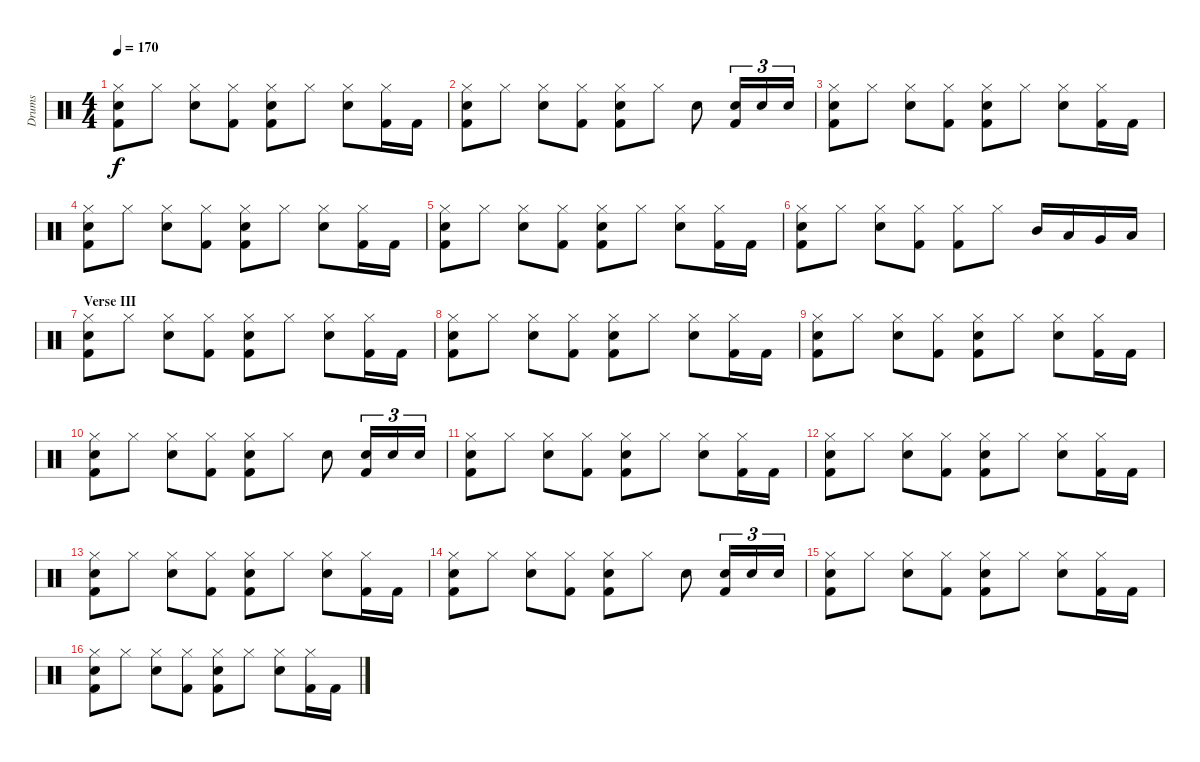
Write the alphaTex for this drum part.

\track ("Drums" "Drums") {instrument percussion}
\staff {score}
\articulation defaults
\ts (4 4)
\tempo 170
\clef neutral
\ks c
("Kick (hit) 2" "Snare (hit) 2" "Hi-Hat (closed)").8{dy f} "Hi-Hat (closed)".8 ("Snare (hit) 2" "Hi-Hat (closed)").8 ("Kick (hit) 2" "Hi-Hat (closed)").8 ("Kick (hit) 2" "Snare (hit) 2" "Hi-Hat (closed)").8 "Hi-Hat (closed)".8 ("Snare (hit) 2" "Hi-Hat (closed)").8 ("Kick (hit) 2" "Hi-Hat (closed)").16 "Kick (hit) 2".16 |
("Kick (hit) 2" "Snare (hit) 2" "Hi-Hat (closed)").8 "Hi-Hat (closed)".8 ("Snare (hit) 2" "Hi-Hat (closed)").8 ("Kick (hit) 2" "Hi-Hat (closed)").8 ("Kick (hit) 2" "Snare (hit) 2" "Hi-Hat (closed)").8 "Hi-Hat (closed)".8 "Snare (hit) 2".8 ("Kick (hit) 2" "Snare (hit) 2").16{tu (3 2)} "Snare (hit) 2".16{tu (3 2)} "Snare (hit) 2".16{tu (3 2)} |
("Kick (hit) 2" "Snare (hit) 2" "Hi-Hat (closed)").8 "Hi-Hat (closed)".8 ("Snare (hit) 2" "Hi-Hat (closed)").8 ("Kick (hit) 2" "Hi-Hat (closed)").8 ("Kick (hit) 2" "Snare (hit) 2" "Hi-Hat (closed)").8 "Hi-Hat (closed)".8 ("Snare (hit) 2" "Hi-Hat (closed)").8 ("Kick (hit) 2" "Hi-Hat (closed)").16 "Kick (hit) 2".16 |
("Kick (hit) 2" "Snare (hit) 2" "Hi-Hat (closed)").8 "Hi-Hat (closed)".8 ("Snare (hit) 2" "Hi-Hat (closed)").8 ("Kick (hit) 2" "Hi-Hat (closed)").8 ("Kick (hit) 2" "Snare (hit) 2" "Hi-Hat (closed)").8 "Hi-Hat (closed)".8 ("Snare (hit) 2" "Hi-Hat (closed)").8 ("Kick (hit) 2" "Hi-Hat (closed)").16 "Kick (hit) 2".16 |
("Kick (hit) 2" "Snare (hit) 2" "Hi-Hat (closed)").8 "Hi-Hat (closed)".8 ("Snare (hit) 2" "Hi-Hat (closed)").8 ("Kick (hit) 2" "Hi-Hat (closed)").8 ("Kick (hit) 2" "Snare (hit) 2" "Hi-Hat (closed)").8 "Hi-Hat (closed)".8 ("Snare (hit) 2" "Hi-Hat (closed)").8 ("Kick (hit) 2" "Hi-Hat (closed)").16 "Kick (hit) 2".16 |
("Kick (hit) 2" "Snare (hit) 2" "Hi-Hat (closed)").8 "Hi-Hat (closed)".8 ("Snare (hit) 2" "Hi-Hat (closed)").8 ("Kick (hit) 2" "Hi-Hat (closed)").8 ("Kick (hit) 2" "Hi-Hat (closed)").8 "Hi-Hat (closed)".8 "Mid Tom (hit)".16 "Low Tom (hit)".16 "Very Low Tom (hit)".16 "Low Floor Tom (hit)".16 |
\section ("" "Verse III")
("Kick (hit) 2" "Snare (hit) 2" "Hi-Hat (closed)").8 "Hi-Hat (closed)".8 ("Snare (hit) 2" "Hi-Hat (closed)").8 ("Kick (hit) 2" "Hi-Hat (closed)").8 ("Kick (hit) 2" "Snare (hit) 2" "Hi-Hat (closed)").8 "Hi-Hat (closed)".8 ("Snare (hit) 2" "Hi-Hat (closed)").8 ("Kick (hit) 2" "Hi-Hat (closed)").16 "Kick (hit) 2".16 |
("Kick (hit) 2" "Snare (hit) 2" "Hi-Hat (closed)").8 "Hi-Hat (closed)".8 ("Snare (hit) 2" "Hi-Hat (closed)").8 ("Kick (hit) 2" "Hi-Hat (closed)").8 ("Kick (hit) 2" "Snare (hit) 2" "Hi-Hat (closed)").8 "Hi-Hat (closed)".8 ("Snare (hit) 2" "Hi-Hat (closed)").8 ("Kick (hit) 2" "Hi-Hat (closed)").16 "Kick (hit) 2".16 |
("Kick (hit) 2" "Snare (hit) 2" "Hi-Hat (closed)").8 "Hi-Hat (closed)".8 ("Snare (hit) 2" "Hi-Hat (closed)").8 ("Kick (hit) 2" "Hi-Hat (closed)").8 ("Kick (hit) 2" "Snare (hit) 2" "Hi-Hat (closed)").8 "Hi-Hat (closed)".8 ("Snare (hit) 2" "Hi-Hat (closed)").8 ("Kick (hit) 2" "Hi-Hat (closed)").16 "Kick (hit) 2".16 |
("Kick (hit) 2" "Snare (hit) 2" "Hi-Hat (closed)").8 "Hi-Hat (closed)".8 ("Snare (hit) 2" "Hi-Hat (closed)").8 ("Kick (hit) 2" "Hi-Hat (closed)").8 ("Kick (hit) 2" "Snare (hit) 2" "Hi-Hat (closed)").8 "Hi-Hat (closed)".8 "Snare (hit) 2".8 ("Kick (hit) 2" "Snare (hit) 2").16{tu (3 2)} "Snare (hit) 2".16{tu (3 2)} "Snare (hit) 2".16{tu (3 2)} |
("Kick (hit) 2" "Snare (hit) 2" "Hi-Hat (closed)").8 "Hi-Hat (closed)".8 ("Snare (hit) 2" "Hi-Hat (closed)").8 ("Kick (hit) 2" "Hi-Hat (closed)").8 ("Kick (hit) 2" "Snare (hit) 2" "Hi-Hat (closed)").8 "Hi-Hat (closed)".8 ("Snare (hit) 2" "Hi-Hat (closed)").8 ("Kick (hit) 2" "Hi-Hat (closed)").16 "Kick (hit) 2".16 |
("Kick (hit) 2" "Snare (hit) 2" "Hi-Hat (closed)").8 "Hi-Hat (closed)".8 ("Snare (hit) 2" "Hi-Hat (closed)").8 ("Kick (hit) 2" "Hi-Hat (closed)").8 ("Kick (hit) 2" "Snare (hit) 2" "Hi-Hat (closed)").8 "Hi-Hat (closed)".8 ("Snare (hit) 2" "Hi-Hat (closed)").8 ("Kick (hit) 2" "Hi-Hat (closed)").16 "Kick (hit) 2".16 |
("Kick (hit) 2" "Snare (hit) 2" "Hi-Hat (closed)").8 "Hi-Hat (closed)".8 ("Snare (hit) 2" "Hi-Hat (closed)").8 ("Kick (hit) 2" "Hi-Hat (closed)").8 ("Kick (hit) 2" "Snare (hit) 2" "Hi-Hat (closed)").8 "Hi-Hat (closed)".8 ("Snare (hit) 2" "Hi-Hat (closed)").8 ("Kick (hit) 2" "Hi-Hat (closed)").16 "Kick (hit) 2".16 |
("Kick (hit) 2" "Snare (hit) 2" "Hi-Hat (closed)").8 "Hi-Hat (closed)".8 ("Snare (hit) 2" "Hi-Hat (closed)").8 ("Kick (hit) 2" "Hi-Hat (closed)").8 ("Kick (hit) 2" "Snare (hit) 2" "Hi-Hat (closed)").8 "Hi-Hat (closed)".8 "Snare (hit) 2".8 ("Kick (hit) 2" "Snare (hit) 2").16{tu (3 2)} "Snare (hit) 2".16{tu (3 2)} "Snare (hit) 2".16{tu (3 2)} |
("Kick (hit) 2" "Snare (hit) 2" "Hi-Hat (closed)").8 "Hi-Hat (closed)".8 ("Snare (hit) 2" "Hi-Hat (closed)").8 ("Kick (hit) 2" "Hi-Hat (closed)").8 ("Kick (hit) 2" "Snare (hit) 2" "Hi-Hat (closed)").8 "Hi-Hat (closed)".8 ("Snare (hit) 2" "Hi-Hat (closed)").8 ("Kick (hit) 2" "Hi-Hat (closed)").16 "Kick (hit) 2".16 |
("Kick (hit) 2" "Snare (hit) 2" "Hi-Hat (closed)").8 "Hi-Hat (closed)".8 ("Snare (hit) 2" "Hi-Hat (closed)").8 ("Kick (hit) 2" "Hi-Hat (closed)").8 ("Kick (hit) 2" "Snare (hit) 2" "Hi-Hat (closed)").8 "Hi-Hat (closed)".8 ("Snare (hit) 2" "Hi-Hat (closed)").8 ("Kick (hit) 2" "Hi-Hat (closed)").16 "Kick (hit) 2".16
